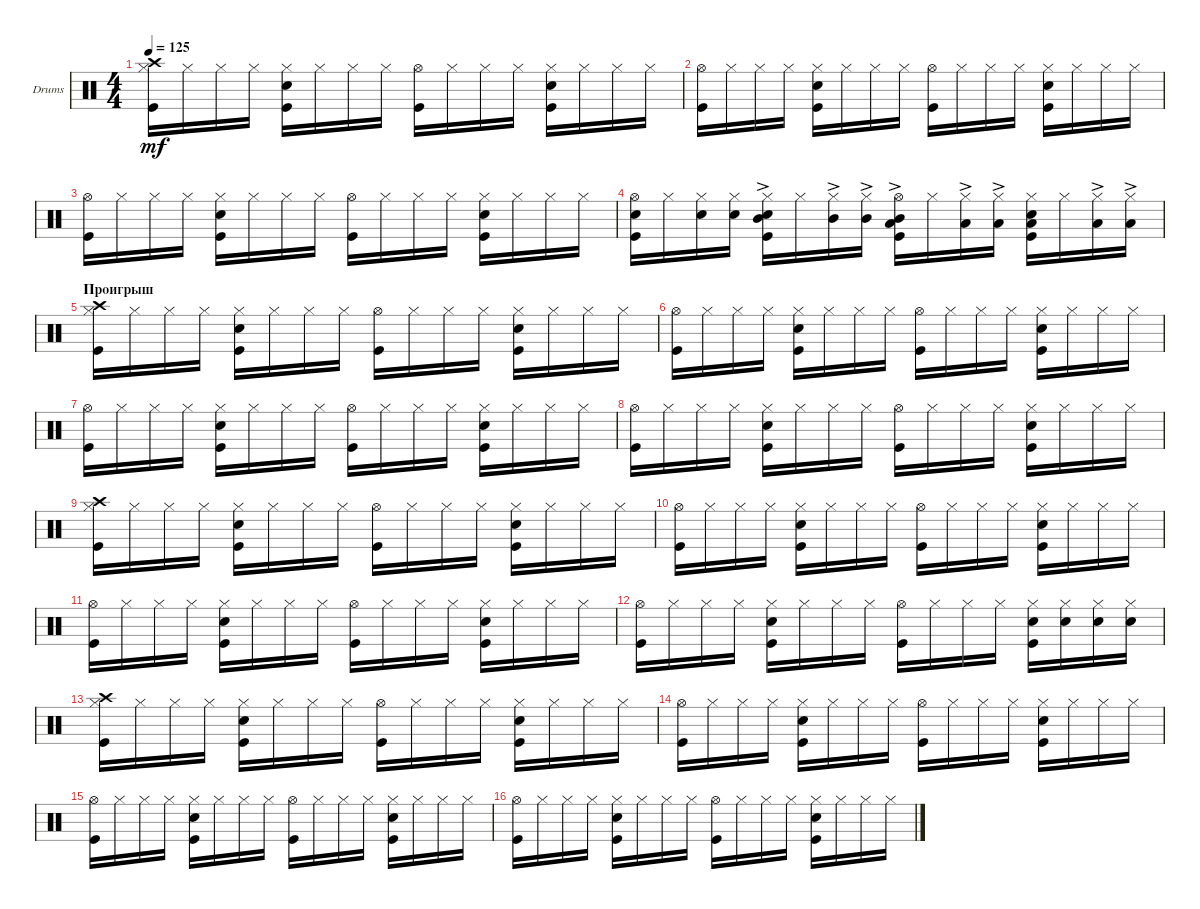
\defaultSystemsLayout 4
\bracketExtendMode groupsimilarinstruments
\firstSystemTrackNameOrientation horizontal
\otherSystemsTrackNameOrientation horizontal
\track ("Drumkit" "Drums") {instrument percussion}
\staff {score}
\articulation defaults
\ts (4 4)
\tempo 125
\clef neutral
\ks c
("Hi-Hat (closed)" "Kick (hit)" "Crash high (hit)").16{dy mf} "Hi-Hat (closed)".16 "Hi-Hat (closed)".16 "Hi-Hat (closed)".16 ("Hi-Hat (closed)" "Kick (hit)" "Snare (hit) 2").16 "Hi-Hat (closed)".16 "Hi-Hat (closed)".16 "Hi-Hat (closed)".16 ("Hi-Hat (open)" "Kick (hit)").16 "Hi-Hat (closed)".16 "Hi-Hat (closed)".16 "Hi-Hat (closed)".16 ("Hi-Hat (closed)" "Kick (hit)" "Snare (hit) 2").16 "Hi-Hat (closed)".16 "Hi-Hat (closed)".16 "Hi-Hat (closed)".16 |
("Hi-Hat (open)" "Kick (hit)").16 "Hi-Hat (closed)".16 "Hi-Hat (closed)".16 "Hi-Hat (closed)".16 ("Hi-Hat (closed)" "Kick (hit)" "Snare (hit) 2").16 "Hi-Hat (closed)".16 "Hi-Hat (closed)".16 "Hi-Hat (closed)".16 ("Hi-Hat (open)" "Kick (hit)").16 "Hi-Hat (closed)".16 "Hi-Hat (closed)".16 "Hi-Hat (closed)".16 ("Hi-Hat (closed)" "Kick (hit)" "Snare (hit) 2").16 "Hi-Hat (closed)".16 "Hi-Hat (closed)".16 "Hi-Hat (closed)".16 |
("Hi-Hat (open)" "Kick (hit)").16 "Hi-Hat (closed)".16 "Hi-Hat (closed)".16 "Hi-Hat (closed)".16 ("Hi-Hat (closed)" "Kick (hit)" "Snare (hit) 2").16 "Hi-Hat (closed)".16 "Hi-Hat (closed)".16 "Hi-Hat (closed)".16 ("Hi-Hat (open)" "Kick (hit)").16 "Hi-Hat (closed)".16 "Hi-Hat (closed)".16 "Hi-Hat (closed)".16 ("Hi-Hat (closed)" "Kick (hit)" "Snare (hit) 2").16 "Hi-Hat (closed)".16 "Hi-Hat (closed)".16 "Hi-Hat (closed)".16 |
("Hi-Hat (open)" "Kick (hit)" "Snare (hit) 2").16 "Hi-Hat (closed)".16 ("Hi-Hat (closed)" "Snare (hit) 2").16 ("Hi-Hat (closed)" "Snare (hit) 2").16 ("Hi-Hat (closed)" "Kick (hit)" "Snare (hit) 2" "Mid Tom (hit)"{ac}).16 "Hi-Hat (closed)".16 ("Hi-Hat (closed)" "Mid Tom (hit)"{ac}).16 ("Hi-Hat (closed)" "Mid Tom (hit)"{ac}).16 ("Hi-Hat (open)" "Kick (hit)" "Mid Tom (hit)" "Low Tom (hit)"{ac}).16 "Hi-Hat (closed)".16 ("Hi-Hat (closed)" "Low Tom (hit)"{ac}).16 ("Hi-Hat (closed)" "Low Tom (hit)"{ac}).16 ("Hi-Hat (closed)" "Kick (hit)" "Snare (hit) 2" "Low Tom (hit)").16 "Hi-Hat (closed)".16 ("Hi-Hat (closed)" "Low Tom (hit)"{ac}).16 ("Hi-Hat (closed)" "Low Tom (hit)"{ac}).16 |
\section ("" "Проигрыш")
("Hi-Hat (closed)" "Kick (hit)" "Crash high (hit)").16 "Hi-Hat (closed)".16 "Hi-Hat (closed)".16 "Hi-Hat (closed)".16 ("Hi-Hat (closed)" "Kick (hit)" "Snare (hit) 2").16 "Hi-Hat (closed)".16 "Hi-Hat (closed)".16 "Hi-Hat (closed)".16 ("Hi-Hat (open)" "Kick (hit)").16 "Hi-Hat (closed)".16 "Hi-Hat (closed)".16 "Hi-Hat (closed)".16 ("Hi-Hat (closed)" "Kick (hit)" "Snare (hit) 2").16 "Hi-Hat (closed)".16 "Hi-Hat (closed)".16 "Hi-Hat (closed)".16 |
("Hi-Hat (open)" "Kick (hit)").16 "Hi-Hat (closed)".16 "Hi-Hat (closed)".16 "Hi-Hat (closed)".16 ("Hi-Hat (closed)" "Kick (hit)" "Snare (hit) 2").16 "Hi-Hat (closed)".16 "Hi-Hat (closed)".16 "Hi-Hat (closed)".16 ("Hi-Hat (open)" "Kick (hit)").16 "Hi-Hat (closed)".16 "Hi-Hat (closed)".16 "Hi-Hat (closed)".16 ("Hi-Hat (closed)" "Kick (hit)" "Snare (hit) 2").16 "Hi-Hat (closed)".16 "Hi-Hat (closed)".16 "Hi-Hat (closed)".16 |
("Hi-Hat (open)" "Kick (hit)").16 "Hi-Hat (closed)".16 "Hi-Hat (closed)".16 "Hi-Hat (closed)".16 ("Hi-Hat (closed)" "Kick (hit)" "Snare (hit) 2").16 "Hi-Hat (closed)".16 "Hi-Hat (closed)".16 "Hi-Hat (closed)".16 ("Hi-Hat (open)" "Kick (hit)").16 "Hi-Hat (closed)".16 "Hi-Hat (closed)".16 "Hi-Hat (closed)".16 ("Hi-Hat (closed)" "Kick (hit)" "Snare (hit) 2").16 "Hi-Hat (closed)".16 "Hi-Hat (closed)".16 "Hi-Hat (closed)".16 |
("Hi-Hat (open)" "Kick (hit)").16 "Hi-Hat (closed)".16 "Hi-Hat (closed)".16 "Hi-Hat (closed)".16 ("Hi-Hat (closed)" "Kick (hit)" "Snare (hit) 2").16 "Hi-Hat (closed)".16 "Hi-Hat (closed)".16 "Hi-Hat (closed)".16 ("Hi-Hat (open)" "Kick (hit)").16 "Hi-Hat (closed)".16 "Hi-Hat (closed)".16 "Hi-Hat (closed)".16 ("Hi-Hat (closed)" "Kick (hit)" "Snare (hit) 2").16 "Hi-Hat (closed)".16 "Hi-Hat (closed)".16 "Hi-Hat (closed)".16 |
("Hi-Hat (closed)" "Kick (hit)" "Crash high (hit)").16 "Hi-Hat (closed)".16 "Hi-Hat (closed)".16 "Hi-Hat (closed)".16 ("Hi-Hat (closed)" "Kick (hit)" "Snare (hit) 2").16 "Hi-Hat (closed)".16 "Hi-Hat (closed)".16 "Hi-Hat (closed)".16 ("Hi-Hat (open)" "Kick (hit)").16 "Hi-Hat (closed)".16 "Hi-Hat (closed)".16 "Hi-Hat (closed)".16 ("Hi-Hat (closed)" "Kick (hit)" "Snare (hit) 2").16 "Hi-Hat (closed)".16 "Hi-Hat (closed)".16 "Hi-Hat (closed)".16 |
("Hi-Hat (open)" "Kick (hit)").16 "Hi-Hat (closed)".16 "Hi-Hat (closed)".16 "Hi-Hat (closed)".16 ("Hi-Hat (closed)" "Kick (hit)" "Snare (hit) 2").16 "Hi-Hat (closed)".16 "Hi-Hat (closed)".16 "Hi-Hat (closed)".16 ("Hi-Hat (open)" "Kick (hit)").16 "Hi-Hat (closed)".16 "Hi-Hat (closed)".16 "Hi-Hat (closed)".16 ("Hi-Hat (closed)" "Kick (hit)" "Snare (hit) 2").16 "Hi-Hat (closed)".16 "Hi-Hat (closed)".16 "Hi-Hat (closed)".16 |
("Hi-Hat (open)" "Kick (hit)").16 "Hi-Hat (closed)".16 "Hi-Hat (closed)".16 "Hi-Hat (closed)".16 ("Hi-Hat (closed)" "Kick (hit)" "Snare (hit) 2").16 "Hi-Hat (closed)".16 "Hi-Hat (closed)".16 "Hi-Hat (closed)".16 ("Hi-Hat (open)" "Kick (hit)").16 "Hi-Hat (closed)".16 "Hi-Hat (closed)".16 "Hi-Hat (closed)".16 ("Hi-Hat (closed)" "Kick (hit)" "Snare (hit) 2").16 "Hi-Hat (closed)".16 "Hi-Hat (closed)".16 "Hi-Hat (closed)".16 |
("Hi-Hat (open)" "Kick (hit)").16 "Hi-Hat (closed)".16 "Hi-Hat (closed)".16 "Hi-Hat (closed)".16 ("Hi-Hat (closed)" "Kick (hit)" "Snare (hit) 2").16 "Hi-Hat (closed)".16 "Hi-Hat (closed)".16 "Hi-Hat (closed)".16 ("Hi-Hat (open)" "Kick (hit)").16 "Hi-Hat (closed)".16 "Hi-Hat (closed)".16 "Hi-Hat (closed)".16 ("Hi-Hat (closed)" "Kick (hit)" "Snare (hit) 2").16 ("Hi-Hat (closed)" "Snare (hit) 2").16 ("Hi-Hat (closed)" "Snare (hit) 2").16 ("Hi-Hat (closed)" "Snare (hit) 2").16 |
("Hi-Hat (closed)" "Kick (hit)" "Crash high (hit)").16 "Hi-Hat (closed)".16 "Hi-Hat (closed)".16 "Hi-Hat (closed)".16 ("Hi-Hat (closed)" "Kick (hit)" "Snare (hit) 2").16 "Hi-Hat (closed)".16 "Hi-Hat (closed)".16 "Hi-Hat (closed)".16 ("Hi-Hat (open)" "Kick (hit)").16 "Hi-Hat (closed)".16 "Hi-Hat (closed)".16 "Hi-Hat (closed)".16 ("Hi-Hat (closed)" "Kick (hit)" "Snare (hit) 2").16 "Hi-Hat (closed)".16 "Hi-Hat (closed)".16 "Hi-Hat (closed)".16 |
("Hi-Hat (open)" "Kick (hit)").16 "Hi-Hat (closed)".16 "Hi-Hat (closed)".16 "Hi-Hat (closed)".16 ("Hi-Hat (closed)" "Kick (hit)" "Snare (hit) 2").16 "Hi-Hat (closed)".16 "Hi-Hat (closed)".16 "Hi-Hat (closed)".16 ("Hi-Hat (open)" "Kick (hit)").16 "Hi-Hat (closed)".16 "Hi-Hat (closed)".16 "Hi-Hat (closed)".16 ("Hi-Hat (closed)" "Kick (hit)" "Snare (hit) 2").16 "Hi-Hat (closed)".16 "Hi-Hat (closed)".16 "Hi-Hat (closed)".16 |
("Hi-Hat (open)" "Kick (hit)").16 "Hi-Hat (closed)".16 "Hi-Hat (closed)".16 "Hi-Hat (closed)".16 ("Hi-Hat (closed)" "Kick (hit)" "Snare (hit) 2").16 "Hi-Hat (closed)".16 "Hi-Hat (closed)".16 "Hi-Hat (closed)".16 ("Hi-Hat (open)" "Kick (hit)").16 "Hi-Hat (closed)".16 "Hi-Hat (closed)".16 "Hi-Hat (closed)".16 ("Hi-Hat (closed)" "Kick (hit)" "Snare (hit) 2").16 "Hi-Hat (closed)".16 "Hi-Hat (closed)".16 "Hi-Hat (closed)".16 |
("Hi-Hat (open)" "Kick (hit)").16 "Hi-Hat (closed)".16 "Hi-Hat (closed)".16 "Hi-Hat (closed)".16 ("Hi-Hat (closed)" "Kick (hit)" "Snare (hit) 2").16 "Hi-Hat (closed)".16 "Hi-Hat (closed)".16 "Hi-Hat (closed)".16 ("Hi-Hat (open)" "Kick (hit)").16 "Hi-Hat (closed)".16 "Hi-Hat (closed)".16 "Hi-Hat (closed)".16 ("Hi-Hat (closed)" "Kick (hit)" "Snare (hit) 2").16 "Hi-Hat (closed)".16 "Hi-Hat (closed)".16 "Hi-Hat (closed)".16
